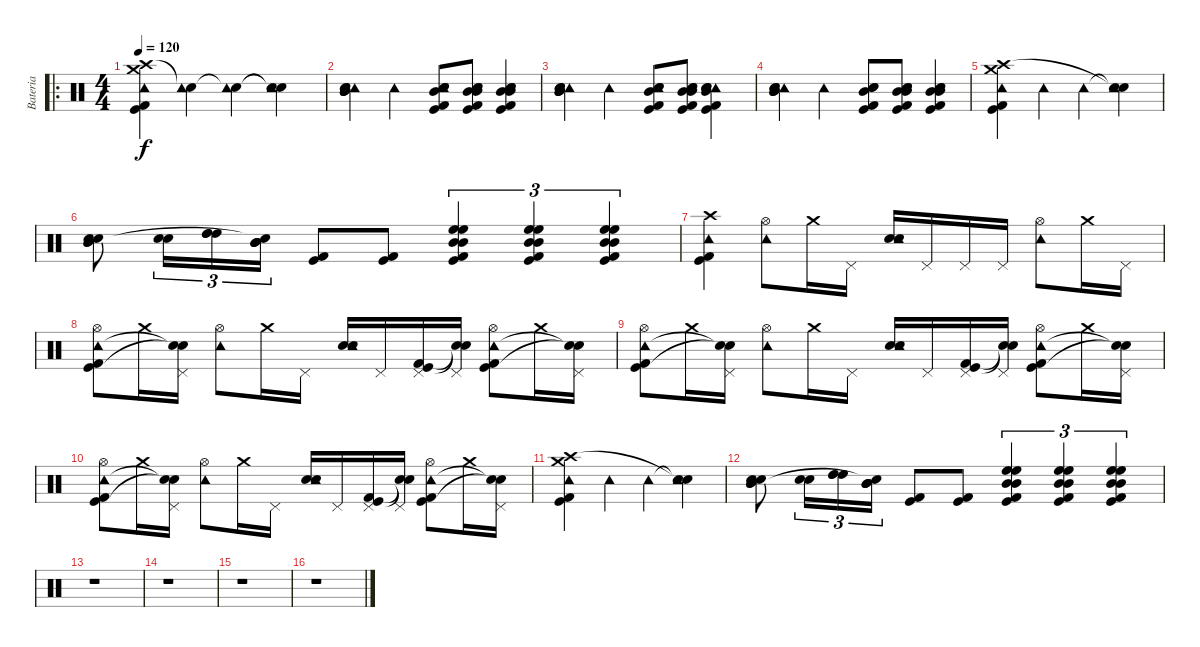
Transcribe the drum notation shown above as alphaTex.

\track ("Bateria" "Bateria") {instrument percussion}
\staff {score}
\articulation defaults
\ro
\ts (4 4)
\tempo 120
\clef neutral
\ks c
("Crash high (hit)" "Crash medium (hit)" "Tambourine (hit)" "Kick (hit)" "Kick (hit) 2").4{dy f} ("Snare (hit)"{t} "Tambourine (hit)").4 ("Snare (hit)"{t} "Tambourine (hit)").4 ("Snare (hit)"{t} "Snare (hit)"{t} "Tambourine (hit)").4 |
("Tambourine (hit)" "Electric Snare (hit)" "Snare (hit) 2" "Mid Tom (hit)" "Mid Tom (hit)" "Mid Tom (hit)").4 "Tambourine (hit)".4 ("Tambourine (hit)" "Electric Snare (hit)" "Snare (hit) 2" "Mid Tom (hit)" "Kick (hit)" "Kick (hit) 2").8 ("Mid Tom (hit)" "Electric Snare (hit)" "Snare (hit) 2" "Mid Tom (hit)" "Kick (hit)" "Kick (hit) 2").8 ("Mid Tom (hit)" "Mid Tom (hit)" "Electric Snare (hit)" "Snare (hit) 2" "Kick (hit)" "Kick (hit) 2").4 |
("Tambourine (hit)" "Electric Snare (hit)" "Snare (hit) 2" "Mid Tom (hit)" "Mid Tom (hit)" "Mid Tom (hit)").4 "Tambourine (hit)".4 ("Tambourine (hit)" "Electric Snare (hit)" "Snare (hit) 2" "Mid Tom (hit)" "Kick (hit)" "Kick (hit) 2").8 ("Mid Tom (hit)" "Electric Snare (hit)" "Snare (hit) 2" "Mid Tom (hit)" "Kick (hit)" "Kick (hit) 2").8 ("Tambourine (hit)" "Mid Tom (hit)" "Electric Snare (hit)" "Snare (hit) 2" "Kick (hit)" "Kick (hit) 2").4 |
("Tambourine (hit)" "Electric Snare (hit)" "Snare (hit) 2" "Mid Tom (hit)" "Mid Tom (hit)" "Mid Tom (hit)").4 "Tambourine (hit)".4 ("Electric Snare (hit)" "Snare (hit) 2" "Mid Tom (hit)" "Kick (hit)" "Kick (hit) 2").8 ("Mid Tom (hit)" "Electric Snare (hit)" "Snare (hit) 2" "Mid Tom (hit)" "Kick (hit)" "Kick (hit) 2").8 ("Mid Tom (hit)" "Mid Tom (hit)" "Electric Snare (hit)" "Snare (hit) 2" "Kick (hit)" "Kick (hit) 2").4 |
("Crash medium (hit)" "Crash high (hit)" "Tambourine (hit)" "Kick (hit)" "Kick (hit) 2").4 "Tambourine (hit)".4 "Tambourine (hit)".4 ("Snare (hit)"{t} "Snare (hit)"{t} "Tambourine (hit)").4 |
("Electric Snare (hit)" "Snare (hit) 2" "Mid Tom (hit)" "Mid Tom (hit)" "Tambourine (hit)").8 ("Electric Snare (hit)" "Snare (hit) 2").16{tu (3 2)} ("High Tom (hit)" "High Tom (hit)" "High Tom (hit)").16{tu (3 2)} ("Mid Tom (hit)" "Mid Tom (hit)" "Mid Tom (hit)" "Snare (hit)"{t}).16{tu (3 2)} ("Kick (hit) 2" "Kick (hit)").8 ("Kick (hit) 2" "Kick (hit)").8 ("High Floor Tom (hit)" "High Floor Tom (hit)" "Mid Tom (hit)" "Mid Tom (hit)" "Kick (hit) 2" "Kick (hit)").4{tu (3 2)} ("High Floor Tom (hit)" "High Floor Tom (hit)" "Mid Tom (hit)" "Mid Tom (hit)" "Kick (hit) 2" "Kick (hit)").4{tu (3 2)} ("High Floor Tom (hit)" "High Floor Tom (hit)" "Mid Tom (hit)" "Mid Tom (hit)" "Kick (hit) 2" "Kick (hit)").4{tu (3 2)} |
("Crash high (hit)" "Tambourine (hit)" "Kick (hit)" "Kick (hit) 2").4 ("Hi-Hat (open)" "Tambourine (hit)").8 "Crash medium (hit)".16 "Pedal Hi-Hat (hit)".16 ("Electric Snare (hit)" "Snare (hit) 2" "Tambourine (hit)").16 "Pedal Hi-Hat (hit)".16 "Pedal Hi-Hat (hit)".16 "Pedal Hi-Hat (hit)".16 ("Hi-Hat (open)" "Tambourine (hit)").8 "Crash medium (hit)".16 "Pedal Hi-Hat (hit)".16 |
("Hi-Hat (open)" "Tambourine (hit)" "Kick (hit)" "Kick (hit) 2").8 "Crash medium (hit)".16 ("Pedal Hi-Hat (hit)" "Snare (hit)"{t} "Snare (hit)"{t}).16 ("Hi-Hat (open)" "Tambourine (hit)").8 "Crash medium (hit)".16 "Pedal Hi-Hat (hit)".16 ("Electric Snare (hit)" "Snare (hit) 2" "Tambourine (hit)").16 "Pedal Hi-Hat (hit)".16 ("Pedal Hi-Hat (hit)" "Kick (hit)" "Kick (hit) 2").16 ("Pedal Hi-Hat (hit)" "Snare (hit)"{t} "Snare (hit)"{t}).16 ("Hi-Hat (open)" "Tambourine (hit)" "Kick (hit)" "Kick (hit) 2").8 "Crash medium (hit)".16 ("Pedal Hi-Hat (hit)" "Snare (hit)"{t} "Snare (hit)"{t}).16 |
("Hi-Hat (open)" "Tambourine (hit)" "Kick (hit)" "Kick (hit) 2").8 "Crash medium (hit)".16 ("Pedal Hi-Hat (hit)" "Snare (hit)"{t} "Snare (hit)"{t}).16 ("Hi-Hat (open)" "Tambourine (hit)").8 "Crash medium (hit)".16 "Pedal Hi-Hat (hit)".16 ("Electric Snare (hit)" "Snare (hit) 2" "Tambourine (hit)").16 "Pedal Hi-Hat (hit)".16 ("Pedal Hi-Hat (hit)" "Kick (hit)" "Kick (hit) 2").16 ("Pedal Hi-Hat (hit)" "Snare (hit)"{t} "Snare (hit)"{t}).16 ("Hi-Hat (open)" "Tambourine (hit)" "Kick (hit)" "Kick (hit) 2").8 "Crash medium (hit)".16 ("Pedal Hi-Hat (hit)" "Snare (hit)"{t} "Snare (hit)"{t}).16 |
("Hi-Hat (open)" "Tambourine (hit)" "Kick (hit)" "Kick (hit) 2").8 "Crash medium (hit)".16 ("Pedal Hi-Hat (hit)" "Snare (hit)"{t} "Snare (hit)"{t}).16 ("Hi-Hat (open)" "Tambourine (hit)").8 "Crash medium (hit)".16 "Pedal Hi-Hat (hit)".16 ("Electric Snare (hit)" "Snare (hit) 2" "Tambourine (hit)").16 "Pedal Hi-Hat (hit)".16 ("Pedal Hi-Hat (hit)" "Kick (hit)" "Kick (hit) 2").16 ("Pedal Hi-Hat (hit)" "Snare (hit)"{t} "Snare (hit)"{t}).16 ("Hi-Hat (open)" "Tambourine (hit)" "Kick (hit)" "Kick (hit) 2").8 "Crash medium (hit)".16 ("Pedal Hi-Hat (hit)" "Snare (hit)"{t} "Snare (hit)"{t}).16 |
("Crash medium (hit)" "Crash high (hit)" "Tambourine (hit)" "Kick (hit)" "Kick (hit) 2").4 "Tambourine (hit)".4 "Tambourine (hit)".4 ("Snare (hit)"{t} "Snare (hit)"{t} "Tambourine (hit)").4 |
("Electric Snare (hit)" "Snare (hit) 2" "Mid Tom (hit)" "Mid Tom (hit)" "Tambourine (hit)").8 ("Electric Snare (hit)" "Snare (hit) 2").16{tu (3 2)} ("High Tom (hit)" "High Tom (hit)" "High Tom (hit)").16{tu (3 2)} ("Mid Tom (hit)" "Mid Tom (hit)" "Mid Tom (hit)" "Snare (hit)"{t}).16{tu (3 2)} ("Kick (hit) 2" "Kick (hit)").8 ("Kick (hit) 2" "Kick (hit)").8 ("High Floor Tom (hit)" "High Floor Tom (hit)" "Mid Tom (hit)" "Mid Tom (hit)" "Kick (hit) 2" "Kick (hit)").4{tu (3 2)} ("High Floor Tom (hit)" "High Floor Tom (hit)" "Mid Tom (hit)" "Mid Tom (hit)" "Kick (hit) 2" "Kick (hit)").4{tu (3 2)} ("High Floor Tom (hit)" "High Floor Tom (hit)" "Mid Tom (hit)" "Mid Tom (hit)" "Kick (hit) 2" "Kick (hit)").4{tu (3 2)} |
r.1 |
r.1 |
r.1 |
r.1
